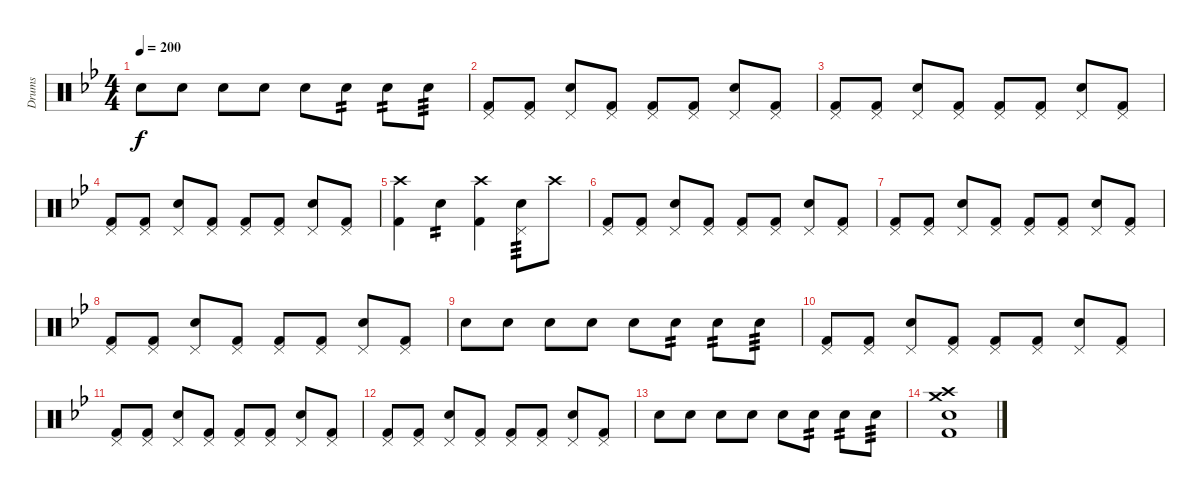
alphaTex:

\track ("Drums" "Drums") {instrument percussion}
\staff {score}
\articulation defaults
\ts (4 4)
\tempo 200
\clef neutral
\ks bb "Electric Snare (hit)".8{dy f} "Electric Snare (hit)".8 "Electric Snare (hit)".8 "Electric Snare (hit)".8 "Electric Snare (hit)".8 "Electric Snare (hit)".8{tp 2} "Electric Snare (hit)".8{tp 2} "Electric Snare (hit)".8{tp 3}
|
("Pedal Hi-Hat (hit)" "Kick (hit) 2").8 ("Pedal Hi-Hat (hit)" "Kick (hit) 2").8 ("Pedal Hi-Hat (hit)" "Electric Snare (hit)").8 ("Pedal Hi-Hat (hit)" "Kick (hit) 2").8 ("Pedal Hi-Hat (hit)" "Kick (hit) 2").8 ("Pedal Hi-Hat (hit)" "Kick (hit) 2").8 ("Pedal Hi-Hat (hit)" "Electric Snare (hit)").8 ("Pedal Hi-Hat (hit)" "Kick (hit) 2").8 |
("Pedal Hi-Hat (hit)" "Kick (hit) 2").8 ("Pedal Hi-Hat (hit)" "Kick (hit) 2").8 ("Pedal Hi-Hat (hit)" "Electric Snare (hit)").8 ("Pedal Hi-Hat (hit)" "Kick (hit) 2").8 ("Pedal Hi-Hat (hit)" "Kick (hit) 2").8 ("Pedal Hi-Hat (hit)" "Kick (hit) 2").8 ("Pedal Hi-Hat (hit)" "Electric Snare (hit)").8 ("Pedal Hi-Hat (hit)" "Kick (hit) 2").8 |
("Pedal Hi-Hat (hit)" "Kick (hit) 2").8 ("Pedal Hi-Hat (hit)" "Kick (hit) 2").8 ("Pedal Hi-Hat (hit)" "Electric Snare (hit)").8 ("Pedal Hi-Hat (hit)" "Kick (hit) 2").8 ("Pedal Hi-Hat (hit)" "Kick (hit) 2").8 ("Pedal Hi-Hat (hit)" "Kick (hit) 2").8 ("Pedal Hi-Hat (hit)" "Electric Snare (hit)").8 ("Pedal Hi-Hat (hit)" "Kick (hit) 2").8 |
("Crash high (hit)" "Kick (hit) 2").4 "Electric Snare (hit)".4{tp 2} ("Crash high (hit)" "Kick (hit) 2").4 ("Pedal Hi-Hat (hit)" "Electric Snare (hit)").8{tp 3} "Crash high (hit)".8 |
("Pedal Hi-Hat (hit)" "Kick (hit) 2").8 ("Pedal Hi-Hat (hit)" "Kick (hit) 2").8 ("Pedal Hi-Hat (hit)" "Electric Snare (hit)").8 ("Pedal Hi-Hat (hit)" "Kick (hit) 2").8 ("Pedal Hi-Hat (hit)" "Kick (hit) 2").8 ("Pedal Hi-Hat (hit)" "Kick (hit) 2").8 ("Pedal Hi-Hat (hit)" "Electric Snare (hit)").8 ("Pedal Hi-Hat (hit)" "Kick (hit) 2").8 |
("Pedal Hi-Hat (hit)" "Kick (hit) 2").8 ("Pedal Hi-Hat (hit)" "Kick (hit) 2").8 ("Pedal Hi-Hat (hit)" "Electric Snare (hit)").8 ("Pedal Hi-Hat (hit)" "Kick (hit) 2").8 ("Pedal Hi-Hat (hit)" "Kick (hit) 2").8 ("Pedal Hi-Hat (hit)" "Kick (hit) 2").8 ("Pedal Hi-Hat (hit)" "Electric Snare (hit)").8 ("Pedal Hi-Hat (hit)" "Kick (hit) 2").8 |
("Pedal Hi-Hat (hit)" "Kick (hit) 2").8 ("Pedal Hi-Hat (hit)" "Kick (hit) 2").8 ("Pedal Hi-Hat (hit)" "Electric Snare (hit)").8 ("Pedal Hi-Hat (hit)" "Kick (hit) 2").8 ("Pedal Hi-Hat (hit)" "Kick (hit) 2").8 ("Pedal Hi-Hat (hit)" "Kick (hit) 2").8 ("Pedal Hi-Hat (hit)" "Electric Snare (hit)").8 ("Pedal Hi-Hat (hit)" "Kick (hit) 2").8 |
"Electric Snare (hit)".8 "Electric Snare (hit)".8 "Electric Snare (hit)".8 "Electric Snare (hit)".8 "Electric Snare (hit)".8 "Electric Snare (hit)".8{tp 2} "Electric Snare (hit)".8{tp 2} "Electric Snare (hit)".8{tp 3} |
("Pedal Hi-Hat (hit)" "Kick (hit) 2").8 ("Pedal Hi-Hat (hit)" "Kick (hit) 2").8 ("Pedal Hi-Hat (hit)" "Electric Snare (hit)").8 ("Pedal Hi-Hat (hit)" "Kick (hit) 2").8 ("Pedal Hi-Hat (hit)" "Kick (hit) 2").8 ("Pedal Hi-Hat (hit)" "Kick (hit) 2").8 ("Pedal Hi-Hat (hit)" "Electric Snare (hit)").8 ("Pedal Hi-Hat (hit)" "Kick (hit) 2").8 |
("Pedal Hi-Hat (hit)" "Kick (hit) 2").8 ("Pedal Hi-Hat (hit)" "Kick (hit) 2").8 ("Pedal Hi-Hat (hit)" "Electric Snare (hit)").8 ("Pedal Hi-Hat (hit)" "Kick (hit) 2").8 ("Pedal Hi-Hat (hit)" "Kick (hit) 2").8 ("Pedal Hi-Hat (hit)" "Kick (hit) 2").8 ("Pedal Hi-Hat (hit)" "Electric Snare (hit)").8 ("Pedal Hi-Hat (hit)" "Kick (hit) 2").8 |
("Pedal Hi-Hat (hit)" "Kick (hit) 2").8 ("Pedal Hi-Hat (hit)" "Kick (hit) 2").8 ("Pedal Hi-Hat (hit)" "Electric Snare (hit)").8 ("Pedal Hi-Hat (hit)" "Kick (hit) 2").8 ("Pedal Hi-Hat (hit)" "Kick (hit) 2").8 ("Pedal Hi-Hat (hit)" "Kick (hit) 2").8 ("Pedal Hi-Hat (hit)" "Electric Snare (hit)").8 ("Pedal Hi-Hat (hit)" "Kick (hit) 2").8 |
"Electric Snare (hit)".8 "Electric Snare (hit)".8 "Electric Snare (hit)".8 "Electric Snare (hit)".8 "Electric Snare (hit)".8 "Electric Snare (hit)".8{tp 2} "Electric Snare (hit)".8{tp 2} "Electric Snare (hit)".8{tp 3} |
("Crash medium (hit)" "Kick (hit) 2" "Crash high (hit)" "Electric Snare (hit)").1
